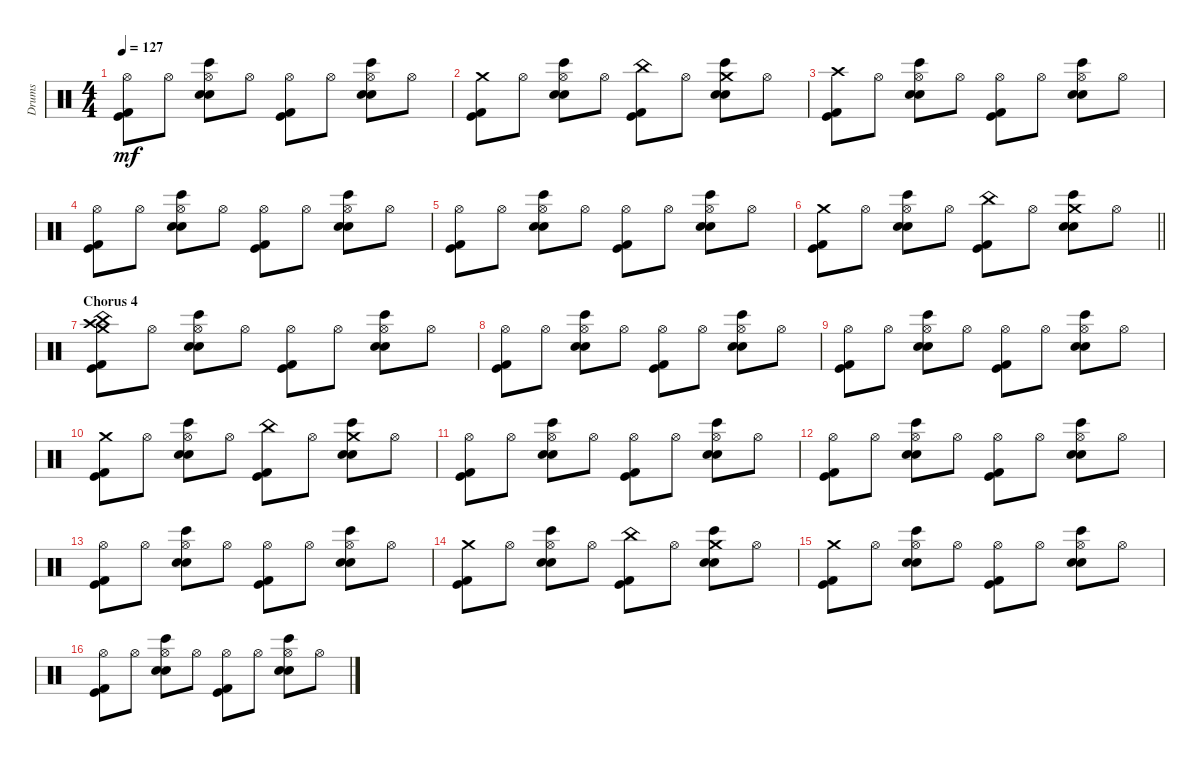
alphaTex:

\track ("Drums" "Drums") {instrument percussion}
\staff {score}
\articulation defaults
\ts (4 4)
\tempo 127
\clef neutral
\ks c
("Hi-Hat (open)" "Kick (hit) 2" "Kick (hit)").8{dy mf} "Hi-Hat (open)".8 ("Hi-Hat (open)" "Bongo High (hit)" "Snare (hit) 2" "Electric Snare (hit)").8 "Hi-Hat (open)".8 ("Hi-Hat (open)" "Kick (hit) 2" "Kick (hit)").8 "Hi-Hat (open)".8 ("Hi-Hat (open)" "Bongo High (hit)" "Snare (hit) 2" "Electric Snare (hit)").8 "Hi-Hat (open)".8 |
("Crash medium (hit)" "Kick (hit) 2" "Kick (hit)").8 "Hi-Hat (open)".8 ("Hi-Hat (open)" "Bongo High (hit)" "Snare (hit) 2" "Electric Snare (hit)").8 "Hi-Hat (open)".8 ("China (hit)" "Kick (hit) 2" "Kick (hit)").8 "Hi-Hat (open)".8 ("Crash medium (hit)" "Bongo High (hit)" "Snare (hit) 2" "Electric Snare (hit)").8 "Hi-Hat (open)".8 |
("Crash high (hit)" "Kick (hit) 2" "Kick (hit)").8 "Hi-Hat (open)".8 ("Hi-Hat (open)" "Bongo High (hit)" "Snare (hit) 2" "Electric Snare (hit)").8 "Hi-Hat (open)".8 ("Hi-Hat (open)" "Kick (hit) 2" "Kick (hit)").8 "Hi-Hat (open)".8 ("Hi-Hat (open)" "Bongo High (hit)" "Snare (hit) 2" "Electric Snare (hit)").8 "Hi-Hat (open)".8 |
("Hi-Hat (open)" "Kick (hit) 2" "Kick (hit)").8 "Hi-Hat (open)".8 ("Hi-Hat (open)" "Bongo High (hit)" "Snare (hit) 2" "Electric Snare (hit)").8 "Hi-Hat (open)".8 ("Hi-Hat (open)" "Kick (hit) 2" "Kick (hit)").8 "Hi-Hat (open)".8 ("Hi-Hat (open)" "Bongo High (hit)" "Snare (hit) 2" "Electric Snare (hit)").8 "Hi-Hat (open)".8 |
("Hi-Hat (open)" "Kick (hit) 2" "Kick (hit)").8 "Hi-Hat (open)".8 ("Hi-Hat (open)" "Bongo High (hit)" "Snare (hit) 2" "Electric Snare (hit)").8 "Hi-Hat (open)".8 ("Hi-Hat (open)" "Kick (hit) 2" "Kick (hit)").8 "Hi-Hat (open)".8 ("Hi-Hat (open)" "Bongo High (hit)" "Snare (hit) 2" "Electric Snare (hit)").8 "Hi-Hat (open)".8 |
\barLineRight lightlight
("Crash medium (hit)" "Kick (hit) 2" "Kick (hit)").8 "Hi-Hat (open)".8 ("Hi-Hat (open)" "Bongo High (hit)" "Snare (hit) 2" "Electric Snare (hit)").8 "Hi-Hat (open)".8 ("China (hit)" "Kick (hit) 2" "Kick (hit)").8 "Hi-Hat (open)".8 ("Crash medium (hit)" "Bongo High (hit)" "Snare (hit) 2" "Electric Snare (hit)").8 "Hi-Hat (open)".8 |
\section ("" "Chorus 4")
("Crash high (hit)" "Crash medium (hit)" "China (hit)" "Kick (hit) 2" "Kick (hit)").8 "Hi-Hat (open)".8 ("Hi-Hat (open)" "Bongo High (hit)" "Snare (hit) 2" "Electric Snare (hit)").8 "Hi-Hat (open)".8 ("Hi-Hat (open)" "Kick (hit) 2" "Kick (hit)").8 "Hi-Hat (open)".8 ("Hi-Hat (open)" "Bongo High (hit)" "Snare (hit) 2" "Electric Snare (hit)").8 "Hi-Hat (open)".8 |
("Hi-Hat (open)" "Kick (hit) 2" "Kick (hit)").8 "Hi-Hat (open)".8 ("Hi-Hat (open)" "Bongo High (hit)" "Snare (hit) 2" "Electric Snare (hit)").8 "Hi-Hat (open)".8 ("Hi-Hat (open)" "Kick (hit) 2" "Kick (hit)").8 "Hi-Hat (open)".8 ("Hi-Hat (open)" "Bongo High (hit)" "Snare (hit) 2" "Electric Snare (hit)").8 "Hi-Hat (open)".8 |
("Hi-Hat (open)" "Kick (hit) 2" "Kick (hit)").8 "Hi-Hat (open)".8 ("Hi-Hat (open)" "Bongo High (hit)" "Snare (hit) 2" "Electric Snare (hit)").8 "Hi-Hat (open)".8 ("Hi-Hat (open)" "Kick (hit) 2" "Kick (hit)").8 "Hi-Hat (open)".8 ("Hi-Hat (open)" "Bongo High (hit)" "Snare (hit) 2" "Electric Snare (hit)").8 "Hi-Hat (open)".8 |
("Crash medium (hit)" "Kick (hit) 2" "Kick (hit)").8 "Hi-Hat (open)".8 ("Hi-Hat (open)" "Bongo High (hit)" "Snare (hit) 2" "Electric Snare (hit)").8 "Hi-Hat (open)".8 ("China (hit)" "Kick (hit) 2" "Kick (hit)").8 "Hi-Hat (open)".8 ("Crash medium (hit)" "Bongo High (hit)" "Snare (hit) 2" "Electric Snare (hit)").8 "Hi-Hat (open)".8 |
("Hi-Hat (open)" "Kick (hit) 2" "Kick (hit)").8 "Hi-Hat (open)".8 ("Hi-Hat (open)" "Bongo High (hit)" "Snare (hit) 2" "Electric Snare (hit)").8 "Hi-Hat (open)".8 ("Hi-Hat (open)" "Kick (hit) 2" "Kick (hit)").8 "Hi-Hat (open)".8 ("Hi-Hat (open)" "Bongo High (hit)" "Snare (hit) 2" "Electric Snare (hit)").8 "Hi-Hat (open)".8 |
("Hi-Hat (open)" "Kick (hit) 2" "Kick (hit)").8 "Hi-Hat (open)".8 ("Hi-Hat (open)" "Bongo High (hit)" "Snare (hit) 2" "Electric Snare (hit)").8 "Hi-Hat (open)".8 ("Hi-Hat (open)" "Kick (hit) 2" "Kick (hit)").8 "Hi-Hat (open)".8 ("Hi-Hat (open)" "Bongo High (hit)" "Snare (hit) 2" "Electric Snare (hit)").8 "Hi-Hat (open)".8 |
("Hi-Hat (open)" "Kick (hit) 2" "Kick (hit)").8 "Hi-Hat (open)".8 ("Hi-Hat (open)" "Bongo High (hit)" "Snare (hit) 2" "Electric Snare (hit)").8 "Hi-Hat (open)".8 ("Hi-Hat (open)" "Kick (hit) 2" "Kick (hit)").8 "Hi-Hat (open)".8 ("Hi-Hat (open)" "Bongo High (hit)" "Snare (hit) 2" "Electric Snare (hit)").8 "Hi-Hat (open)".8 |
("Crash medium (hit)" "Kick (hit) 2" "Kick (hit)").8 "Hi-Hat (open)".8 ("Hi-Hat (open)" "Bongo High (hit)" "Snare (hit) 2" "Electric Snare (hit)").8 "Hi-Hat (open)".8 ("China (hit)" "Kick (hit) 2" "Kick (hit)").8 "Hi-Hat (open)".8 ("Crash medium (hit)" "Bongo High (hit)" "Snare (hit) 2" "Electric Snare (hit)").8 "Hi-Hat (open)".8 |
("Crash medium (hit)" "Kick (hit) 2" "Kick (hit)").8 "Hi-Hat (open)".8 ("Hi-Hat (open)" "Bongo High (hit)" "Snare (hit) 2" "Electric Snare (hit)").8 "Hi-Hat (open)".8 ("Hi-Hat (open)" "Kick (hit) 2" "Kick (hit)").8 "Hi-Hat (open)".8 ("Hi-Hat (open)" "Bongo High (hit)" "Snare (hit) 2" "Electric Snare (hit)").8 "Hi-Hat (open)".8 |
("Hi-Hat (open)" "Kick (hit) 2" "Kick (hit)").8 "Hi-Hat (open)".8 ("Hi-Hat (open)" "Bongo High (hit)" "Snare (hit) 2" "Electric Snare (hit)").8 "Hi-Hat (open)".8 ("Hi-Hat (open)" "Kick (hit) 2" "Kick (hit)").8 "Hi-Hat (open)".8 ("Hi-Hat (open)" "Bongo High (hit)" "Snare (hit) 2" "Electric Snare (hit)").8 "Hi-Hat (open)".8
